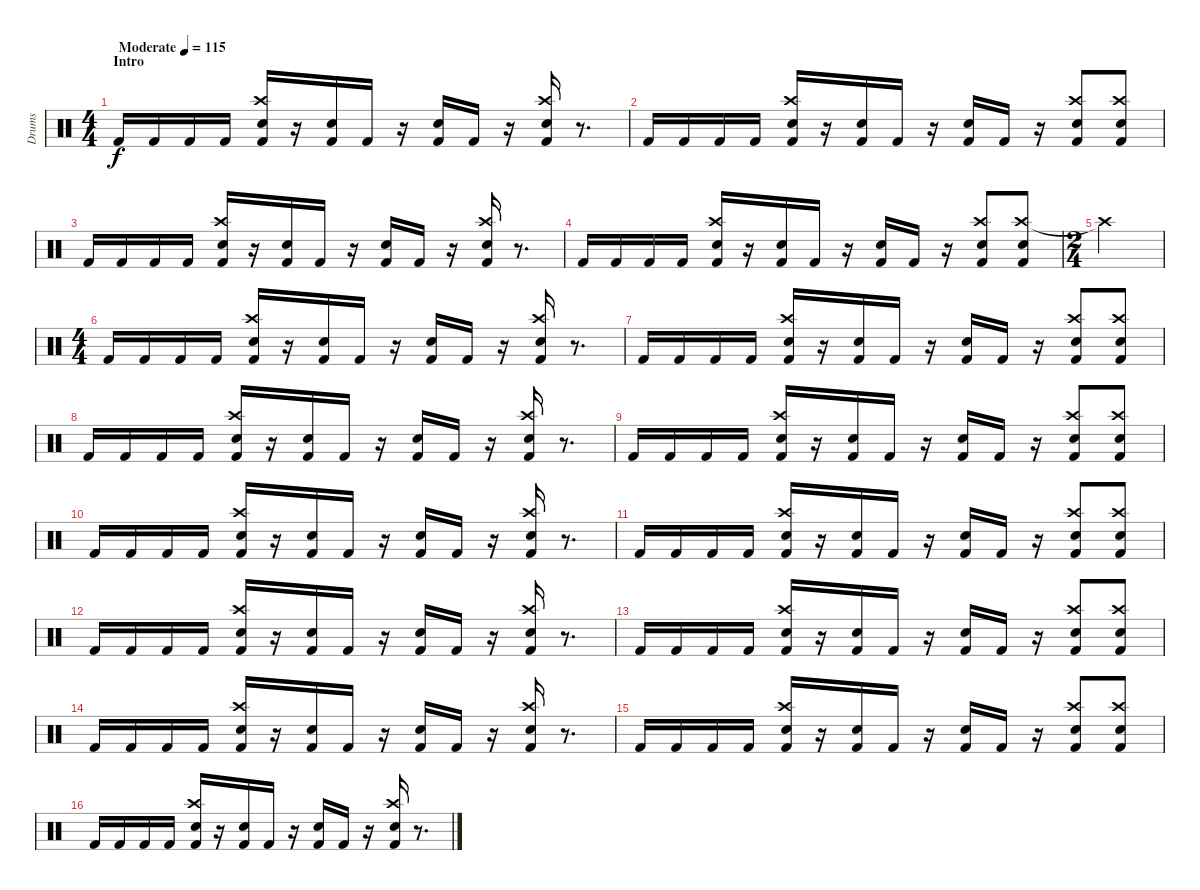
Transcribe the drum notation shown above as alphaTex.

\track ("Drums" "Drums") {instrument percussion}
\staff {score}
\articulation defaults
\ts (4 4)
\section ("" "Intro")
\tempo (115 "Moderate")
\clef neutral
\ks c "Kick (hit) 2".16{dy f} "Kick (hit) 2".16 "Kick (hit) 2".16 "Kick (hit) 2".16
("Crash high (hit)" "Snare (hit) 2" "Kick (hit) 2").16 r.16 ("Snare (hit) 2" "Kick (hit) 2").16 "Kick (hit) 2".16 r.16 ("Snare (hit) 2" "Kick (hit) 2").16 "Kick (hit) 2".16 r.16 ("Crash high (hit)" "Snare (hit) 2" "Kick (hit) 2").16 r.8{d} |
"Kick (hit) 2".16 "Kick (hit) 2".16 "Kick (hit) 2".16 "Kick (hit) 2".16 ("Crash high (hit)" "Snare (hit) 2" "Kick (hit) 2").16 r.16 ("Snare (hit) 2" "Kick (hit) 2").16 "Kick (hit) 2".16 r.16 ("Snare (hit) 2" "Kick (hit) 2").16 "Kick (hit) 2".16 r.16 ("Crash high (hit)" "Snare (hit) 2" "Kick (hit) 2").8 ("Crash high (hit)" "Snare (hit) 2" "Kick (hit) 2").8 |
"Kick (hit) 2".16 "Kick (hit) 2".16 "Kick (hit) 2".16 "Kick (hit) 2".16 ("Crash high (hit)" "Snare (hit) 2" "Kick (hit) 2").16 r.16 ("Snare (hit) 2" "Kick (hit) 2").16 "Kick (hit) 2".16 r.16 ("Snare (hit) 2" "Kick (hit) 2").16 "Kick (hit) 2".16 r.16 ("Crash high (hit)" "Snare (hit) 2" "Kick (hit) 2").16 r.8{d} |
"Kick (hit) 2".16 "Kick (hit) 2".16 "Kick (hit) 2".16 "Kick (hit) 2".16 ("Crash high (hit)" "Snare (hit) 2" "Kick (hit) 2").16 r.16 ("Snare (hit) 2" "Kick (hit) 2").16 "Kick (hit) 2".16 r.16 ("Snare (hit) 2" "Kick (hit) 2").16 "Kick (hit) 2".16 r.16 ("Crash high (hit)" "Snare (hit) 2" "Kick (hit) 2").8 ("Crash high (hit)" "Snare (hit) 2" "Kick (hit) 2").8 |
\ts (2 4)
"Crash high (hit)"{t}.2 |
\ts (4 4)
"Kick (hit) 2".16 "Kick (hit) 2".16 "Kick (hit) 2".16 "Kick (hit) 2".16 ("Crash high (hit)" "Snare (hit) 2" "Kick (hit) 2").16 r.16 ("Snare (hit) 2" "Kick (hit) 2").16 "Kick (hit) 2".16 r.16 ("Snare (hit) 2" "Kick (hit) 2").16 "Kick (hit) 2".16 r.16 ("Crash high (hit)" "Snare (hit) 2" "Kick (hit) 2").16 r.8{d} |
"Kick (hit) 2".16 "Kick (hit) 2".16 "Kick (hit) 2".16 "Kick (hit) 2".16 ("Crash high (hit)" "Snare (hit) 2" "Kick (hit) 2").16 r.16 ("Snare (hit) 2" "Kick (hit) 2").16 "Kick (hit) 2".16 r.16 ("Snare (hit) 2" "Kick (hit) 2").16 "Kick (hit) 2".16 r.16 ("Crash high (hit)" "Snare (hit) 2" "Kick (hit) 2").8 ("Crash high (hit)" "Snare (hit) 2" "Kick (hit) 2").8 |
"Kick (hit) 2".16 "Kick (hit) 2".16 "Kick (hit) 2".16 "Kick (hit) 2".16 ("Crash high (hit)" "Snare (hit) 2" "Kick (hit) 2").16 r.16 ("Snare (hit) 2" "Kick (hit) 2").16 "Kick (hit) 2".16 r.16 ("Snare (hit) 2" "Kick (hit) 2").16 "Kick (hit) 2".16 r.16 ("Crash high (hit)" "Snare (hit) 2" "Kick (hit) 2").16 r.8{d} |
"Kick (hit) 2".16 "Kick (hit) 2".16 "Kick (hit) 2".16 "Kick (hit) 2".16 ("Crash high (hit)" "Snare (hit) 2" "Kick (hit) 2").16 r.16 ("Snare (hit) 2" "Kick (hit) 2").16 "Kick (hit) 2".16 r.16 ("Snare (hit) 2" "Kick (hit) 2").16 "Kick (hit) 2".16 r.16 ("Crash high (hit)" "Snare (hit) 2" "Kick (hit) 2").8 ("Crash high (hit)" "Snare (hit) 2" "Kick (hit) 2").8 |
"Kick (hit) 2".16 "Kick (hit) 2".16 "Kick (hit) 2".16 "Kick (hit) 2".16 ("Crash high (hit)" "Snare (hit) 2" "Kick (hit) 2").16 r.16 ("Snare (hit) 2" "Kick (hit) 2").16 "Kick (hit) 2".16 r.16 ("Snare (hit) 2" "Kick (hit) 2").16 "Kick (hit) 2".16 r.16 ("Crash high (hit)" "Snare (hit) 2" "Kick (hit) 2").16 r.8{d} |
"Kick (hit) 2".16 "Kick (hit) 2".16 "Kick (hit) 2".16 "Kick (hit) 2".16 ("Crash high (hit)" "Snare (hit) 2" "Kick (hit) 2").16 r.16 ("Snare (hit) 2" "Kick (hit) 2").16 "Kick (hit) 2".16 r.16 ("Snare (hit) 2" "Kick (hit) 2").16 "Kick (hit) 2".16 r.16 ("Crash high (hit)" "Snare (hit) 2" "Kick (hit) 2").8 ("Crash high (hit)" "Snare (hit) 2" "Kick (hit) 2").8 |
"Kick (hit) 2".16 "Kick (hit) 2".16 "Kick (hit) 2".16 "Kick (hit) 2".16 ("Crash high (hit)" "Snare (hit) 2" "Kick (hit) 2").16 r.16 ("Snare (hit) 2" "Kick (hit) 2").16 "Kick (hit) 2".16 r.16 ("Snare (hit) 2" "Kick (hit) 2").16 "Kick (hit) 2".16 r.16 ("Crash high (hit)" "Snare (hit) 2" "Kick (hit) 2").16 r.8{d} |
"Kick (hit) 2".16 "Kick (hit) 2".16 "Kick (hit) 2".16 "Kick (hit) 2".16 ("Crash high (hit)" "Snare (hit) 2" "Kick (hit) 2").16 r.16 ("Snare (hit) 2" "Kick (hit) 2").16 "Kick (hit) 2".16 r.16 ("Snare (hit) 2" "Kick (hit) 2").16 "Kick (hit) 2".16 r.16 ("Crash high (hit)" "Snare (hit) 2" "Kick (hit) 2").8 ("Crash high (hit)" "Snare (hit) 2" "Kick (hit) 2").8 |
"Kick (hit) 2".16 "Kick (hit) 2".16 "Kick (hit) 2".16 "Kick (hit) 2".16 ("Crash high (hit)" "Snare (hit) 2" "Kick (hit) 2").16 r.16 ("Snare (hit) 2" "Kick (hit) 2").16 "Kick (hit) 2".16 r.16 ("Snare (hit) 2" "Kick (hit) 2").16 "Kick (hit) 2".16 r.16 ("Crash high (hit)" "Snare (hit) 2" "Kick (hit) 2").16 r.8{d} |
"Kick (hit) 2".16 "Kick (hit) 2".16 "Kick (hit) 2".16 "Kick (hit) 2".16 ("Crash high (hit)" "Snare (hit) 2" "Kick (hit) 2").16 r.16 ("Snare (hit) 2" "Kick (hit) 2").16 "Kick (hit) 2".16 r.16 ("Snare (hit) 2" "Kick (hit) 2").16 "Kick (hit) 2".16 r.16 ("Crash high (hit)" "Snare (hit) 2" "Kick (hit) 2").8 ("Crash high (hit)" "Snare (hit) 2" "Kick (hit) 2").8 |
"Kick (hit) 2".16 "Kick (hit) 2".16 "Kick (hit) 2".16 "Kick (hit) 2".16 ("Crash high (hit)" "Snare (hit) 2" "Kick (hit) 2").16 r.16 ("Snare (hit) 2" "Kick (hit) 2").16 "Kick (hit) 2".16 r.16 ("Snare (hit) 2" "Kick (hit) 2").16 "Kick (hit) 2".16 r.16 ("Crash high (hit)" "Snare (hit) 2" "Kick (hit) 2").16 r.8{d}
